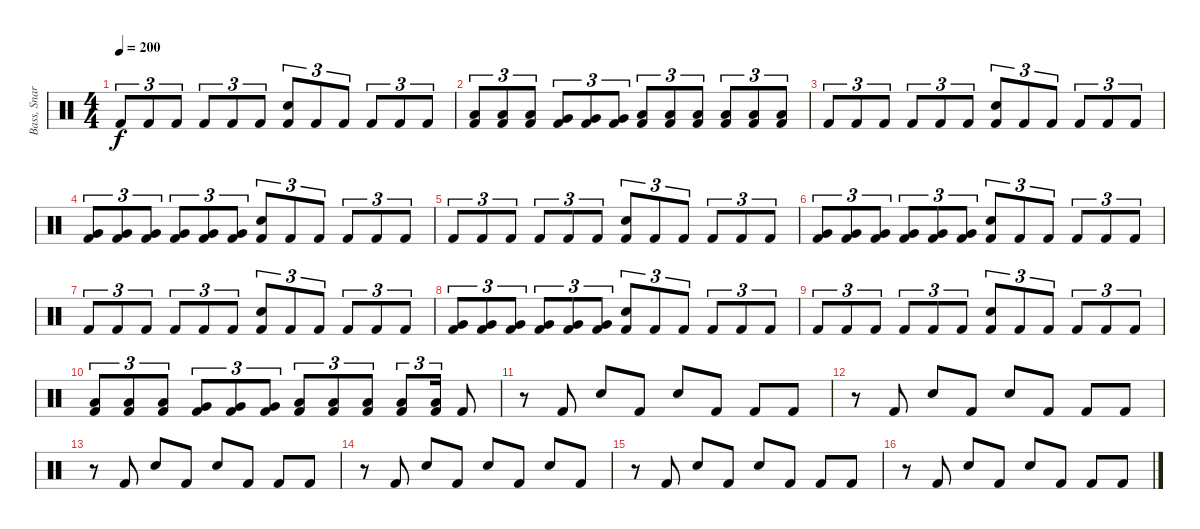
\track ("Bass, Snare & Toms" "Bass, Snar") {instrument percussion}
\staff {score}
\articulation defaults
\ts (4 4)
\tempo 200
\clef neutral
\ks c "Kick (hit) 2".8{tu (3 2) dy f} "Kick (hit) 2".8{tu (3 2)} "Kick (hit) 2".8{tu (3 2)} "Kick (hit) 2".8{tu (3 2)} "Kick (hit) 2".8{tu (3 2)} "Kick (hit) 2".8{tu (3 2)}
("Electric Snare (hit)" "Kick (hit) 2").8{tu (3 2)} "Kick (hit) 2".8{tu (3 2)} "Kick (hit) 2".8{tu (3 2)} "Kick (hit) 2".8{tu (3 2)} "Kick (hit) 2".8{tu (3 2)} "Kick (hit) 2".8{tu (3 2)} |
("Low Tom (hit)" "Kick (hit) 2").8{tu (3 2)} ("Low Tom (hit)" "Kick (hit) 2").8{tu (3 2)} ("Low Tom (hit)" "Kick (hit) 2").8{tu (3 2)} ("Very Low Tom (hit)" "Kick (hit) 2").8{tu (3 2)} ("Very Low Tom (hit)" "Kick (hit) 2").8{tu (3 2)} ("Very Low Tom (hit)" "Kick (hit) 2").8{tu (3 2)} ("Low Floor Tom (hit)" "Kick (hit) 2").8{tu (3 2)} ("Low Floor Tom (hit)" "Kick (hit) 2").8{tu (3 2)} ("Low Floor Tom (hit)" "Kick (hit) 2").8{tu (3 2)} ("Low Floor Tom (hit)" "Kick (hit) 2").8{tu (3 2)} ("Low Floor Tom (hit)" "Kick (hit) 2").8{tu (3 2)} ("Low Floor Tom (hit)" "Kick (hit) 2").8{tu (3 2)} |
"Kick (hit) 2".8{tu (3 2)} "Kick (hit) 2".8{tu (3 2)} "Kick (hit) 2".8{tu (3 2)} "Kick (hit) 2".8{tu (3 2)} "Kick (hit) 2".8{tu (3 2)} "Kick (hit) 2".8{tu (3 2)} ("Electric Snare (hit)" "Kick (hit) 2").8{tu (3 2)} "Kick (hit) 2".8{tu (3 2)} "Kick (hit) 2".8{tu (3 2)} "Kick (hit) 2".8{tu (3 2)} "Kick (hit) 2".8{tu (3 2)} "Kick (hit) 2".8{tu (3 2)} |
("Very Low Tom (hit)" "Kick (hit) 2").8{tu (3 2)} ("Very Low Tom (hit)" "Kick (hit) 2").8{tu (3 2)} ("Very Low Tom (hit)" "Kick (hit) 2").8{tu (3 2)} ("Very Low Tom (hit)" "Kick (hit) 2").8{tu (3 2)} ("Very Low Tom (hit)" "Kick (hit) 2").8{tu (3 2)} ("Very Low Tom (hit)" "Kick (hit) 2").8{tu (3 2)} ("Electric Snare (hit)" "Kick (hit) 2").8{tu (3 2)} "Kick (hit) 2".8{tu (3 2)} "Kick (hit) 2".8{tu (3 2)} "Kick (hit) 2".8{tu (3 2)} "Kick (hit) 2".8{tu (3 2)} "Kick (hit) 2".8{tu (3 2)} |
"Kick (hit) 2".8{tu (3 2)} "Kick (hit) 2".8{tu (3 2)} "Kick (hit) 2".8{tu (3 2)} "Kick (hit) 2".8{tu (3 2)} "Kick (hit) 2".8{tu (3 2)} "Kick (hit) 2".8{tu (3 2)} ("Electric Snare (hit)" "Kick (hit) 2").8{tu (3 2)} "Kick (hit) 2".8{tu (3 2)} "Kick (hit) 2".8{tu (3 2)} "Kick (hit) 2".8{tu (3 2)} "Kick (hit) 2".8{tu (3 2)} "Kick (hit) 2".8{tu (3 2)} |
("Very Low Tom (hit)" "Kick (hit) 2").8{tu (3 2)} ("Very Low Tom (hit)" "Kick (hit) 2").8{tu (3 2)} ("Very Low Tom (hit)" "Kick (hit) 2").8{tu (3 2)} ("Very Low Tom (hit)" "Kick (hit) 2").8{tu (3 2)} ("Very Low Tom (hit)" "Kick (hit) 2").8{tu (3 2)} ("Very Low Tom (hit)" "Kick (hit) 2").8{tu (3 2)} ("Electric Snare (hit)" "Kick (hit) 2").8{tu (3 2)} "Kick (hit) 2".8{tu (3 2)} "Kick (hit) 2".8{tu (3 2)} "Kick (hit) 2".8{tu (3 2)} "Kick (hit) 2".8{tu (3 2)} "Kick (hit) 2".8{tu (3 2)} |
"Kick (hit) 2".8{tu (3 2)} "Kick (hit) 2".8{tu (3 2)} "Kick (hit) 2".8{tu (3 2)} "Kick (hit) 2".8{tu (3 2)} "Kick (hit) 2".8{tu (3 2)} "Kick (hit) 2".8{tu (3 2)} ("Electric Snare (hit)" "Kick (hit) 2").8{tu (3 2)} "Kick (hit) 2".8{tu (3 2)} "Kick (hit) 2".8{tu (3 2)} "Kick (hit) 2".8{tu (3 2)} "Kick (hit) 2".8{tu (3 2)} "Kick (hit) 2".8{tu (3 2)} |
("Very Low Tom (hit)" "Kick (hit) 2").8{tu (3 2)} ("Very Low Tom (hit)" "Kick (hit) 2").8{tu (3 2)} ("Very Low Tom (hit)" "Kick (hit) 2").8{tu (3 2)} ("Very Low Tom (hit)" "Kick (hit) 2").8{tu (3 2)} ("Very Low Tom (hit)" "Kick (hit) 2").8{tu (3 2)} ("Very Low Tom (hit)" "Kick (hit) 2").8{tu (3 2)} ("Electric Snare (hit)" "Kick (hit) 2").8{tu (3 2)} "Kick (hit) 2".8{tu (3 2)} "Kick (hit) 2".8{tu (3 2)} "Kick (hit) 2".8{tu (3 2)} "Kick (hit) 2".8{tu (3 2)} "Kick (hit) 2".8{tu (3 2)} |
"Kick (hit) 2".8{tu (3 2)} "Kick (hit) 2".8{tu (3 2)} "Kick (hit) 2".8{tu (3 2)} "Kick (hit) 2".8{tu (3 2)} "Kick (hit) 2".8{tu (3 2)} "Kick (hit) 2".8{tu (3 2)} ("Electric Snare (hit)" "Kick (hit) 2").8{tu (3 2)} "Kick (hit) 2".8{tu (3 2)} "Kick (hit) 2".8{tu (3 2)} "Kick (hit) 2".8{tu (3 2)} "Kick (hit) 2".8{tu (3 2)} "Kick (hit) 2".8{tu (3 2)} |
("Low Tom (hit)" "Kick (hit) 2").8{tu (3 2)} ("Low Tom (hit)" "Kick (hit) 2").8{tu (3 2)} ("Low Tom (hit)" "Kick (hit) 2").8{tu (3 2)} ("Very Low Tom (hit)" "Kick (hit) 2").8{tu (3 2)} ("Very Low Tom (hit)" "Kick (hit) 2").8{tu (3 2)} ("Very Low Tom (hit)" "Kick (hit) 2").8{tu (3 2)} ("Low Floor Tom (hit)" "Kick (hit) 2").8{tu (3 2)} ("Low Floor Tom (hit)" "Kick (hit) 2").8{tu (3 2)} ("Low Floor Tom (hit)" "Kick (hit) 2").8{tu (3 2)} ("Low Floor Tom (hit)" "Kick (hit) 2").8{tu (3 2)} ("Low Floor Tom (hit)" "Kick (hit) 2").16{tu (3 2)} "Kick (hit) 2".8 |
r.8 "Kick (hit) 2".8 "Electric Snare (hit)".8 "Kick (hit) 2".8 "Electric Snare (hit)".8 "Kick (hit) 2".8 "Kick (hit) 2".8 "Kick (hit) 2".8 |
r.8 "Kick (hit) 2".8 "Electric Snare (hit)".8 "Kick (hit) 2".8 "Electric Snare (hit)".8 "Kick (hit) 2".8 "Kick (hit) 2".8 "Kick (hit) 2".8 |
r.8 "Kick (hit) 2".8 "Electric Snare (hit)".8 "Kick (hit) 2".8 "Electric Snare (hit)".8 "Kick (hit) 2".8 "Kick (hit) 2".8 "Kick (hit) 2".8 |
r.8 "Kick (hit) 2".8 "Electric Snare (hit)".8 "Kick (hit) 2".8 "Electric Snare (hit)".8 "Kick (hit) 2".8 "Electric Snare (hit)".8 "Kick (hit) 2".8 |
r.8 "Kick (hit) 2".8 "Electric Snare (hit)".8 "Kick (hit) 2".8 "Electric Snare (hit)".8 "Kick (hit) 2".8 "Kick (hit) 2".8 "Kick (hit) 2".8 |
r.8 "Kick (hit) 2".8 "Electric Snare (hit)".8 "Kick (hit) 2".8 "Electric Snare (hit)".8 "Kick (hit) 2".8 "Kick (hit) 2".8 "Kick (hit) 2".8
